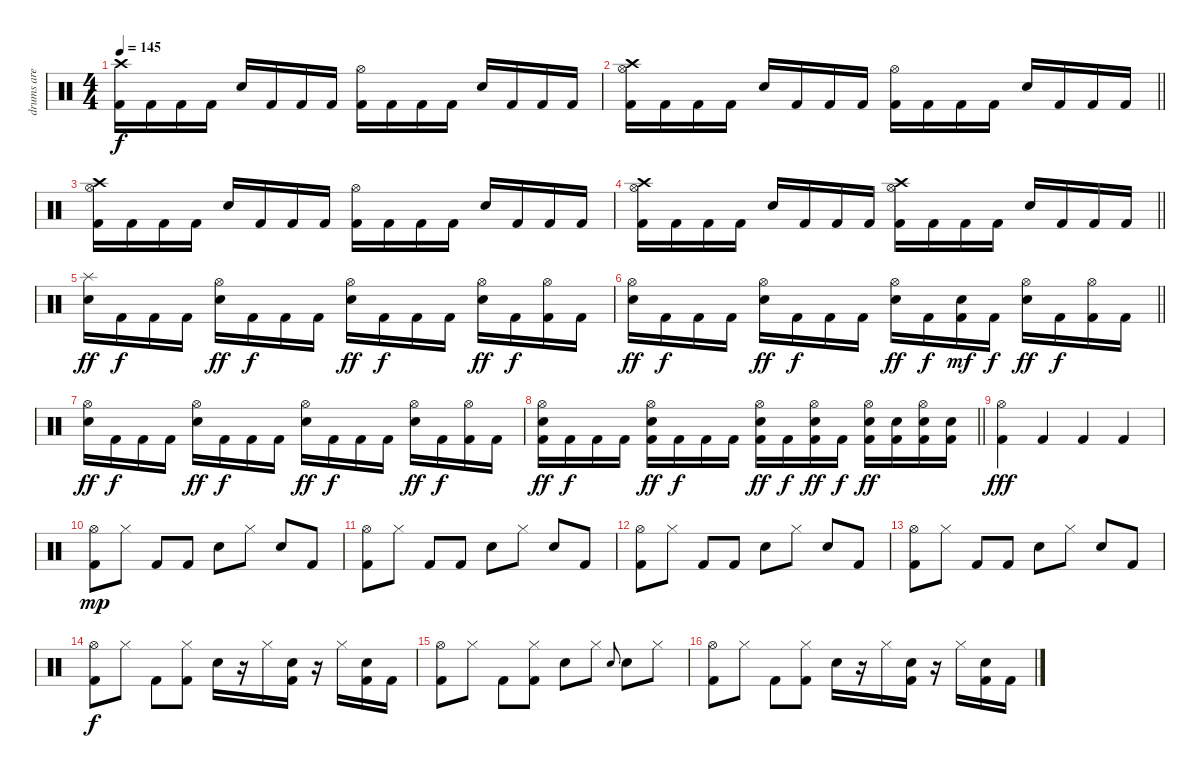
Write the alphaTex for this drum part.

\track ("drums are cool   >.<" "drums are ") {instrument percussion}
\staff {score}
\articulation defaults
\ts (4 4)
\tempo 145
\clef neutral
\ks c
("Crash high (hit)" "Kick (hit) 2").16{dy f} "Kick (hit) 2".16 "Kick (hit) 2".16 "Kick (hit) 2".16 "Snare (hit) 2".16 "Kick (hit) 2".16 "Kick (hit) 2".16 "Kick (hit) 2".16 ("Hi-Hat (open)" "Kick (hit) 2").16 "Kick (hit) 2".16 "Kick (hit) 2".16 "Kick (hit) 2".16 "Snare (hit) 2".16 "Kick (hit) 2".16 "Kick (hit) 2".16 "Kick (hit) 2".16 |
\barLineRight lightlight
("Crash high (hit)" "Hi-Hat (open)" "Kick (hit) 2").16 "Kick (hit) 2".16 "Kick (hit) 2".16 "Kick (hit) 2".16 "Snare (hit) 2".16 "Kick (hit) 2".16 "Kick (hit) 2".16 "Kick (hit) 2".16 ("Hi-Hat (open)" "Kick (hit) 2").16 "Kick (hit) 2".16 "Kick (hit) 2".16 "Kick (hit) 2".16 "Snare (hit) 2".16 "Kick (hit) 2".16 "Kick (hit) 2".16 "Kick (hit) 2".16 |
("Crash high (hit)" "Hi-Hat (open)" "Kick (hit) 2").16 "Kick (hit) 2".16 "Kick (hit) 2".16 "Kick (hit) 2".16 "Snare (hit) 2".16 "Kick (hit) 2".16 "Kick (hit) 2".16 "Kick (hit) 2".16 ("Hi-Hat (open)" "Kick (hit) 2").16 "Kick (hit) 2".16 "Kick (hit) 2".16 "Kick (hit) 2".16 "Snare (hit) 2".16 "Kick (hit) 2".16 "Kick (hit) 2".16 "Kick (hit) 2".16 |
\barLineRight lightlight
("Crash high (hit)" "Hi-Hat (open)" "Kick (hit) 2").16 "Kick (hit) 2".16 "Kick (hit) 2".16 "Kick (hit) 2".16 "Snare (hit) 2".16 "Kick (hit) 2".16 "Kick (hit) 2".16 "Kick (hit) 2".16 ("Crash high (hit)" "Hi-Hat (open)" "Kick (hit) 2").16 "Kick (hit) 2".16 "Kick (hit) 2".16 "Kick (hit) 2".16 "Snare (hit) 2".16 "Kick (hit) 2".16 "Kick (hit) 2".16 "Kick (hit) 2".16 |
("Splash (hit)" "Snare (hit) 2").16{dy ff volume 11} "Kick (hit) 2".16{dy f} "Kick (hit) 2".16 "Kick (hit) 2".16 ("Hi-Hat (open)" "Snare (hit) 2").16{dy ff} "Kick (hit) 2".16{dy f} "Kick (hit) 2".16 "Kick (hit) 2".16 ("Hi-Hat (open)" "Snare (hit) 2").16{dy ff} "Kick (hit) 2".16{dy f} "Kick (hit) 2".16 "Kick (hit) 2".16 ("Hi-Hat (open)" "Snare (hit) 2").16{dy ff} "Kick (hit) 2".16{dy f} ("Hi-Hat (open)" "Kick (hit) 2").16 "Kick (hit) 2".16 |
\barLineRight lightlight
("Hi-Hat (open)" "Snare (hit) 2").16{dy ff} "Kick (hit) 2".16{dy f} "Kick (hit) 2".16 "Kick (hit) 2".16 ("Hi-Hat (open)" "Snare (hit) 2").16{dy ff} "Kick (hit) 2".16{dy f} "Kick (hit) 2".16 "Kick (hit) 2".16 ("Hi-Hat (open)" "Snare (hit) 2").16{dy ff} "Kick (hit) 2".16{dy f} ("Snare (hit) 2" "Kick (hit) 2").16{dy mf} "Kick (hit) 2".16{dy f} ("Hi-Hat (open)" "Snare (hit) 2").16{dy ff} "Kick (hit) 2".16{dy f} ("Hi-Hat (open)" "Kick (hit) 2").16 "Kick (hit) 2".16 |
("Hi-Hat (open)" "Snare (hit) 2").16{dy ff} "Kick (hit) 2".16{dy f} "Kick (hit) 2".16 "Kick (hit) 2".16 ("Hi-Hat (open)" "Snare (hit) 2").16{dy ff} "Kick (hit) 2".16{dy f} "Kick (hit) 2".16 "Kick (hit) 2".16 ("Hi-Hat (open)" "Snare (hit) 2").16{dy ff} "Kick (hit) 2".16{dy f} "Kick (hit) 2".16 "Kick (hit) 2".16 ("Hi-Hat (open)" "Snare (hit) 2").16{dy ff} "Kick (hit) 2".16{dy f} ("Hi-Hat (open)" "Kick (hit) 2").16 "Kick (hit) 2".16 |
\barLineRight lightlight
("Hi-Hat (open)" "Snare (hit) 2" "Kick (hit) 2").16{dy ff} "Kick (hit) 2".16{dy f} "Kick (hit) 2".16 "Kick (hit) 2".16 ("Hi-Hat (open)" "Snare (hit) 2" "Kick (hit) 2").16{dy ff} "Kick (hit) 2".16{dy f} "Kick (hit) 2".16 "Kick (hit) 2".16 ("Hi-Hat (open)" "Snare (hit) 2" "Kick (hit) 2").16{dy ff} "Kick (hit) 2".16{dy f} ("Hi-Hat (open)" "Snare (hit) 2" "Kick (hit) 2").16{dy ff} "Kick (hit) 2".16{dy f} ("Hi-Hat (open)" "Snare (hit) 2" "Kick (hit) 2").16{dy ff} ("Snare (hit) 2" "Kick (hit) 2").16 ("Hi-Hat (open)" "Snare (hit) 2" "Kick (hit) 2").16 ("Snare (hit) 2" "Kick (hit) 2").16 |
("Hi-Hat (open)" "Kick (hit) 2").4{dy fff} "Kick (hit) 2".4 "Kick (hit) 2".4 "Kick (hit) 2".4 |
("Hi-Hat (open)" "Kick (hit) 2").8{dy mp volume 10} "Hi-Hat (closed)".8 "Kick (hit) 2".8 "Kick (hit) 2".8 "Snare (hit) 2".8 "Hi-Hat (closed)".8 "Snare (hit) 2".8 "Kick (hit) 2".8 |
("Hi-Hat (open)" "Kick (hit) 2").8 "Hi-Hat (closed)".8 "Kick (hit) 2".8 "Kick (hit) 2".8 "Snare (hit) 2".8 "Hi-Hat (closed)".8 "Snare (hit) 2".8 "Kick (hit) 2".8 |
("Hi-Hat (open)" "Kick (hit) 2").8 "Hi-Hat (closed)".8 "Kick (hit) 2".8 "Kick (hit) 2".8 "Snare (hit) 2".8 "Hi-Hat (closed)".8 "Snare (hit) 2".8 "Kick (hit) 2".8 |
("Hi-Hat (open)" "Kick (hit) 2").8 "Hi-Hat (closed)".8 "Kick (hit) 2".8 "Kick (hit) 2".8 "Snare (hit) 2".8 "Hi-Hat (closed)".8 "Snare (hit) 2".8 "Kick (hit) 2".8 |
("Hi-Hat (open)" "Kick (hit) 2").8{dy f volume 10} "Hi-Hat (closed)".8 "Kick (hit) 2".8 ("Hi-Hat (closed)" "Kick (hit) 2").8 "Snare (hit) 2".16 r.16 "Hi-Hat (closed)".16 ("Snare (hit) 2" "Kick (hit) 2").16 r.16 "Hi-Hat (closed)".16 ("Snare (hit) 2" "Kick (hit) 2").16 "Kick (hit) 2".16 |
("Hi-Hat (open)" "Kick (hit) 2").8 "Hi-Hat (closed)".8 "Kick (hit) 2".8 ("Hi-Hat (closed)" "Kick (hit) 2").8 "Snare (hit) 2".8 "Hi-Hat (closed)".8 "Snare (hit) 2".8{gr onbeat} "Snare (hit) 2".8 "Hi-Hat (closed)".8 |
("Hi-Hat (open)" "Kick (hit) 2").8 "Hi-Hat (closed)".8 "Kick (hit) 2".8 ("Hi-Hat (closed)" "Kick (hit) 2").8 "Snare (hit) 2".16 r.16 "Hi-Hat (closed)".16 ("Snare (hit) 2" "Kick (hit) 2").16 r.16 "Hi-Hat (closed)".16 ("Snare (hit) 2" "Kick (hit) 2").16 "Kick (hit) 2".16
